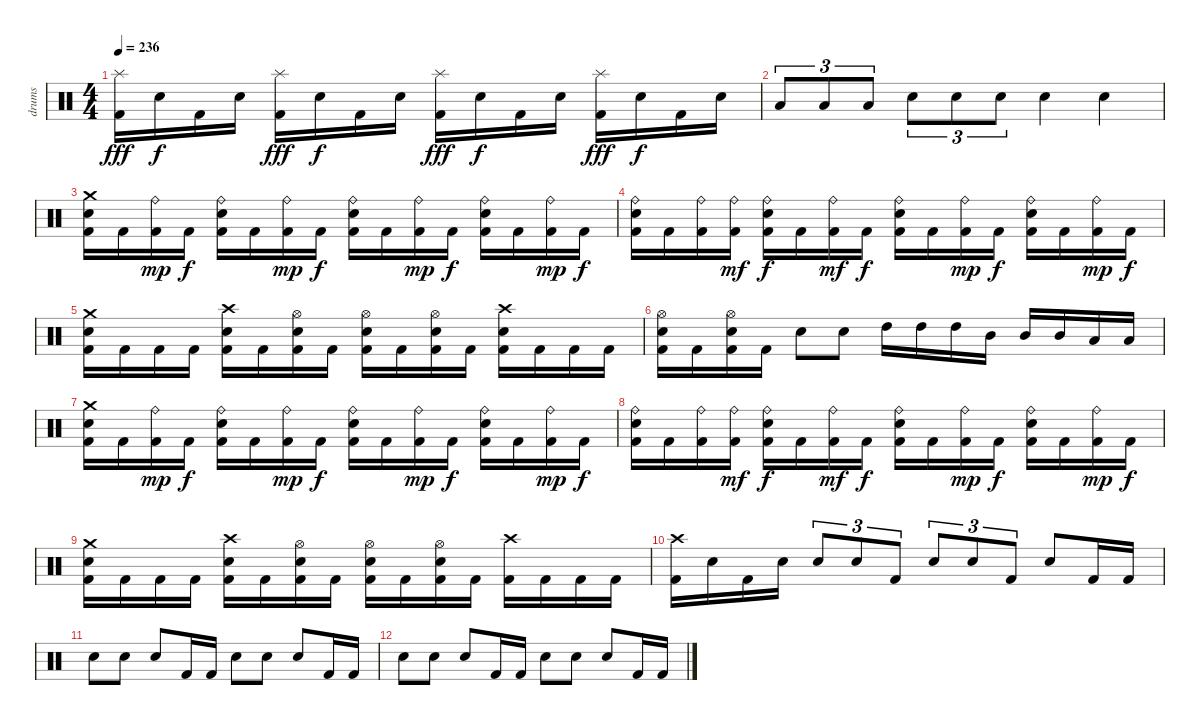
\track ("drums" "drums") {instrument percussion}
\staff {score}
\articulation defaults
\ts (4 4)
\tempo 236
\clef neutral
\ks c
("Splash (hit)" "Kick (hit) 2").16{dy fff} "Electric Snare (hit)".16{dy f} "Kick (hit) 2".16 "Electric Snare (hit)".16 ("Splash (hit)" "Kick (hit) 2").16{dy fff} "Electric Snare (hit)".16{dy f} "Kick (hit) 2".16 "Electric Snare (hit)".16 ("Splash (hit)" "Kick (hit) 2").16{dy fff} "Electric Snare (hit)".16{dy f} "Kick (hit) 2".16 "Electric Snare (hit)".16 ("Splash (hit)" "Kick (hit) 2").16{dy fff} "Electric Snare (hit)".16{dy f} "Kick (hit) 2".16 "Electric Snare (hit)".16 |
"Low Tom (hit)".8{tu (3 2)} "Low Tom (hit)".8{tu (3 2)} "Low Tom (hit)".8{tu (3 2)} "Electric Snare (hit)".8{tu (3 2)} "Electric Snare (hit)".8{tu (3 2)} "Electric Snare (hit)".8{tu (3 2)} "Electric Snare (hit)".4 "Electric Snare (hit)".4 |
("Crash medium (hit)" "Electric Snare (hit)" "Kick (hit) 2").16 "Kick (hit) 2".16 ("Ride (bell)" "Kick (hit) 2").16{dy mp} "Kick (hit) 2".16{dy f} ("Ride (bell)" "Electric Snare (hit)" "Kick (hit) 2").16 "Kick (hit) 2".16 ("Ride (bell)" "Kick (hit) 2").16{dy mp} "Kick (hit) 2".16{dy f} ("Ride (bell)" "Electric Snare (hit)" "Kick (hit) 2").16 "Kick (hit) 2".16 ("Ride (bell)" "Kick (hit) 2").16{dy mp} "Kick (hit) 2".16{dy f} ("Ride (bell)" "Electric Snare (hit)" "Kick (hit) 2").16 "Kick (hit) 2".16 ("Ride (bell)" "Kick (hit) 2").16{dy mp} "Kick (hit) 2".16{dy f} |
("Ride (bell)" "Electric Snare (hit)" "Kick (hit) 2").16 "Kick (hit) 2".16 ("Ride (bell)" "Kick (hit) 2").16 ("Ride (bell)" "Kick (hit) 2").16{dy mf} ("Ride (bell)" "Electric Snare (hit)" "Kick (hit) 2").16{dy f} "Kick (hit) 2".16 ("Ride (bell)" "Kick (hit) 2").16{dy mf} "Kick (hit) 2".16{dy f} ("Ride (bell)" "Electric Snare (hit)" "Kick (hit) 2").16 "Kick (hit) 2".16 ("Ride (bell)" "Kick (hit) 2").16{dy mp} "Kick (hit) 2".16{dy f} ("Ride (bell)" "Electric Snare (hit)" "Kick (hit) 2").16 "Kick (hit) 2".16 ("Ride (bell)" "Kick (hit) 2").16{dy mp} "Kick (hit) 2".16{dy f} |
("Crash medium (hit)" "Electric Snare (hit)" "Kick (hit) 2").16 "Kick (hit) 2".16 "Kick (hit) 2".16 "Kick (hit) 2".16 ("Crash high (hit)" "Electric Snare (hit)" "Kick (hit) 2").16 "Kick (hit) 2".16 ("Hi-Hat (open)" "Electric Snare (hit)" "Kick (hit) 2").16 "Kick (hit) 2".16 ("Hi-Hat (open)" "Electric Snare (hit)" "Kick (hit) 2").16 "Kick (hit) 2".16 ("Hi-Hat (open)" "Electric Snare (hit)" "Kick (hit) 2").16 "Kick (hit) 2".16 ("Crash high (hit)" "Electric Snare (hit)" "Kick (hit) 2").16 "Kick (hit) 2".16 "Kick (hit) 2".16 "Kick (hit) 2".16 |
("Hi-Hat (open)" "Electric Snare (hit)" "Kick (hit) 2").16 "Kick (hit) 2".16 ("Hi-Hat (open)" "Electric Snare (hit)" "Kick (hit) 2").16 "Kick (hit) 2".16 "Electric Snare (hit)".8 "Electric Snare (hit)".8 "High Tom (hit)".16 "High Tom (hit)".16 "High Tom (hit)".16 "Mid Tom (hit)".16 "Mid Tom (hit)".16 "Mid Tom (hit)".16 "Low Tom (hit)".16 "Low Tom (hit)".16 |
("Crash medium (hit)" "Electric Snare (hit)" "Kick (hit) 2").16 "Kick (hit) 2".16 ("Ride (bell)" "Kick (hit) 2").16{dy mp} "Kick (hit) 2".16{dy f} ("Ride (bell)" "Electric Snare (hit)" "Kick (hit) 2").16 "Kick (hit) 2".16 ("Ride (bell)" "Kick (hit) 2").16{dy mp} "Kick (hit) 2".16{dy f} ("Ride (bell)" "Electric Snare (hit)" "Kick (hit) 2").16 "Kick (hit) 2".16 ("Ride (bell)" "Kick (hit) 2").16{dy mp} "Kick (hit) 2".16{dy f} ("Ride (bell)" "Electric Snare (hit)" "Kick (hit) 2").16 "Kick (hit) 2".16 ("Ride (bell)" "Kick (hit) 2").16{dy mp} "Kick (hit) 2".16{dy f} |
("Ride (bell)" "Electric Snare (hit)" "Kick (hit) 2").16 "Kick (hit) 2".16 ("Ride (bell)" "Kick (hit) 2").16 ("Ride (bell)" "Kick (hit) 2").16{dy mf} ("Ride (bell)" "Electric Snare (hit)" "Kick (hit) 2").16{dy f} "Kick (hit) 2".16 ("Ride (bell)" "Kick (hit) 2").16{dy mf} "Kick (hit) 2".16{dy f} ("Ride (bell)" "Electric Snare (hit)" "Kick (hit) 2").16 "Kick (hit) 2".16 ("Ride (bell)" "Kick (hit) 2").16{dy mp} "Kick (hit) 2".16{dy f} ("Ride (bell)" "Electric Snare (hit)" "Kick (hit) 2").16 "Kick (hit) 2".16 ("Ride (bell)" "Kick (hit) 2").16{dy mp} "Kick (hit) 2".16{dy f} |
("Crash medium (hit)" "Electric Snare (hit)" "Kick (hit) 2").16 "Kick (hit) 2".16 "Kick (hit) 2".16 "Kick (hit) 2".16 ("Crash high (hit)" "Electric Snare (hit)" "Kick (hit) 2").16 "Kick (hit) 2".16 ("Hi-Hat (open)" "Electric Snare (hit)" "Kick (hit) 2").16 "Kick (hit) 2".16 ("Hi-Hat (open)" "Electric Snare (hit)" "Kick (hit) 2").16 "Kick (hit) 2".16 ("Hi-Hat (open)" "Electric Snare (hit)" "Kick (hit) 2").16 "Kick (hit) 2".16 ("Crash high (hit)" "Kick (hit) 2").16 "Kick (hit) 2".16 "Kick (hit) 2".16 "Kick (hit) 2".16 |
("Crash high (hit)" "Kick (hit) 2").16 "Electric Snare (hit)".16 "Kick (hit) 2".16 "Electric Snare (hit)".16 "Electric Snare (hit)".8{tu (3 2)} "Electric Snare (hit)".8{tu (3 2)} "Kick (hit) 2".8{tu (3 2)} "Electric Snare (hit)".8{tu (3 2)} "Electric Snare (hit)".8{tu (3 2)} "Kick (hit) 2".8{tu (3 2)} "Electric Snare (hit)".8 "Kick (hit) 2".16 "Kick (hit) 2".16 |
"Electric Snare (hit)".8 "Electric Snare (hit)".8 "Electric Snare (hit)".8 "Kick (hit) 2".16 "Kick (hit) 2".16 "Electric Snare (hit)".8 "Electric Snare (hit)".8 "Electric Snare (hit)".8 "Kick (hit) 2".16 "Kick (hit) 2".16 |
"Electric Snare (hit)".8 "Electric Snare (hit)".8 "Electric Snare (hit)".8 "Kick (hit) 2".16 "Kick (hit) 2".16 "Electric Snare (hit)".8 "Electric Snare (hit)".8 "Electric Snare (hit)".8 "Kick (hit) 2".16 "Kick (hit) 2".16
